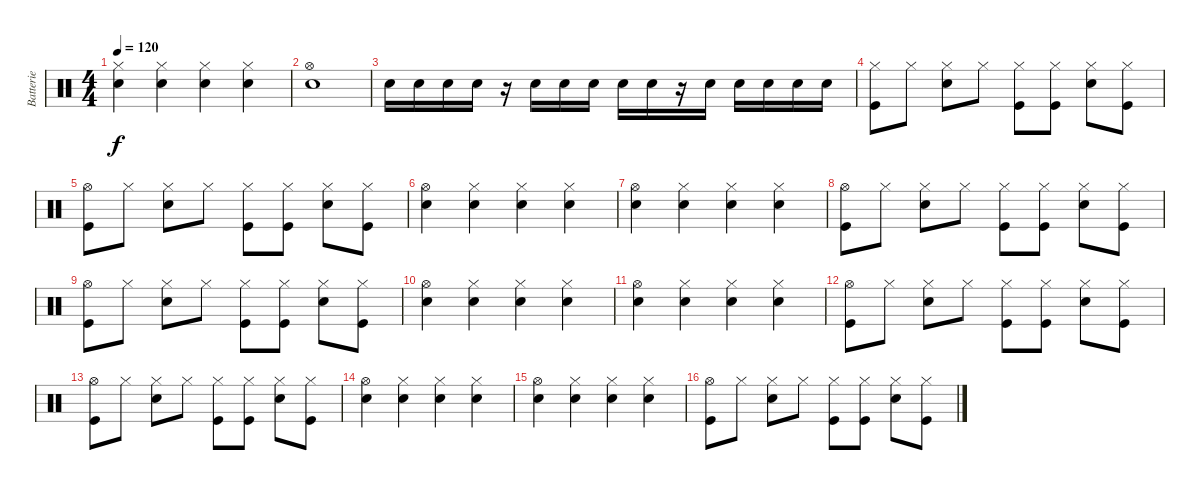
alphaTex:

\track ("Batterie" "Batterie") {instrument percussion}
\staff {score}
\articulation defaults
\ts (4 4)
\tempo 120
\clef neutral
\ks c
("Hi-Hat (closed)" "Snare (hit) 2").4{dy f} ("Hi-Hat (closed)" "Snare (hit) 2").4 ("Hi-Hat (closed)" "Snare (hit) 2").4 ("Hi-Hat (closed)" "Snare (hit) 2").4 |
("Hi-Hat (open)" "Snare (hit) 2").1 |
"Snare (hit) 2".16 "Snare (hit) 2".16 "Snare (hit) 2".16 "Snare (hit) 2".16 r.16 "Snare (hit) 2".16 "Snare (hit) 2".16 "Snare (hit) 2".16 "Snare (hit) 2".16 "Snare (hit) 2".16 r.16 "Snare (hit) 2".16 "Snare (hit) 2".16 "Snare (hit) 2".16 "Snare (hit) 2".16 "Snare (hit) 2".16 |
("Hi-Hat (closed)" "Kick (hit)").8 "Hi-Hat (closed)".8 ("Hi-Hat (closed)" "Snare (hit) 2").8 "Hi-Hat (closed)".8 ("Hi-Hat (closed)" "Kick (hit)").8 ("Hi-Hat (closed)" "Kick (hit)").8 ("Hi-Hat (closed)" "Snare (hit) 2").8 ("Hi-Hat (closed)" "Kick (hit)").8 |
("Hi-Hat (open)" "Kick (hit)").8 "Hi-Hat (closed)".8 ("Hi-Hat (closed)" "Snare (hit) 2").8 "Hi-Hat (closed)".8 ("Hi-Hat (closed)" "Kick (hit)").8 ("Hi-Hat (closed)" "Kick (hit)").8 ("Hi-Hat (closed)" "Snare (hit) 2").8 ("Hi-Hat (closed)" "Kick (hit)").8 |
("Hi-Hat (open)" "Snare (hit) 2").4 ("Hi-Hat (closed)" "Snare (hit) 2").4 ("Hi-Hat (closed)" "Snare (hit) 2").4 ("Hi-Hat (closed)" "Snare (hit) 2").4 |
("Hi-Hat (open)" "Snare (hit) 2").4 ("Hi-Hat (closed)" "Snare (hit) 2").4 ("Hi-Hat (closed)" "Snare (hit) 2").4 ("Hi-Hat (closed)" "Snare (hit) 2").4 |
("Hi-Hat (open)" "Kick (hit)").8 "Hi-Hat (closed)".8 ("Hi-Hat (closed)" "Snare (hit) 2").8 "Hi-Hat (closed)".8 ("Hi-Hat (closed)" "Kick (hit)").8 ("Hi-Hat (closed)" "Kick (hit)").8 ("Hi-Hat (closed)" "Snare (hit) 2").8 ("Hi-Hat (closed)" "Kick (hit)").8 |
("Hi-Hat (open)" "Kick (hit)").8 "Hi-Hat (closed)".8 ("Hi-Hat (closed)" "Snare (hit) 2").8 "Hi-Hat (closed)".8 ("Hi-Hat (closed)" "Kick (hit)").8 ("Hi-Hat (closed)" "Kick (hit)").8 ("Hi-Hat (closed)" "Snare (hit) 2").8 ("Hi-Hat (closed)" "Kick (hit)").8 |
("Hi-Hat (open)" "Snare (hit) 2").4 ("Hi-Hat (closed)" "Snare (hit) 2").4 ("Hi-Hat (closed)" "Snare (hit) 2").4 ("Hi-Hat (closed)" "Snare (hit) 2").4 |
("Hi-Hat (open)" "Snare (hit) 2").4 ("Hi-Hat (closed)" "Snare (hit) 2").4 ("Hi-Hat (closed)" "Snare (hit) 2").4 ("Hi-Hat (closed)" "Snare (hit) 2").4 |
("Hi-Hat (open)" "Kick (hit)").8 "Hi-Hat (closed)".8 ("Hi-Hat (closed)" "Snare (hit) 2").8 "Hi-Hat (closed)".8 ("Hi-Hat (closed)" "Kick (hit)").8 ("Hi-Hat (closed)" "Kick (hit)").8 ("Hi-Hat (closed)" "Snare (hit) 2").8 ("Hi-Hat (closed)" "Kick (hit)").8 |
("Hi-Hat (open)" "Kick (hit)").8 "Hi-Hat (closed)".8 ("Hi-Hat (closed)" "Snare (hit) 2").8 "Hi-Hat (closed)".8 ("Hi-Hat (closed)" "Kick (hit)").8 ("Hi-Hat (closed)" "Kick (hit)").8 ("Hi-Hat (closed)" "Snare (hit) 2").8 ("Hi-Hat (closed)" "Kick (hit)").8 |
("Hi-Hat (open)" "Snare (hit) 2").4 ("Hi-Hat (closed)" "Snare (hit) 2").4 ("Hi-Hat (closed)" "Snare (hit) 2").4 ("Hi-Hat (closed)" "Snare (hit) 2").4 |
("Hi-Hat (open)" "Snare (hit) 2").4 ("Hi-Hat (closed)" "Snare (hit) 2").4 ("Hi-Hat (closed)" "Snare (hit) 2").4 ("Hi-Hat (closed)" "Snare (hit) 2").4 |
("Hi-Hat (open)" "Kick (hit)").8 "Hi-Hat (closed)".8 ("Hi-Hat (closed)" "Snare (hit) 2").8 "Hi-Hat (closed)".8 ("Hi-Hat (closed)" "Kick (hit)").8 ("Hi-Hat (closed)" "Kick (hit)").8 ("Hi-Hat (closed)" "Snare (hit) 2").8 ("Hi-Hat (closed)" "Kick (hit)").8
